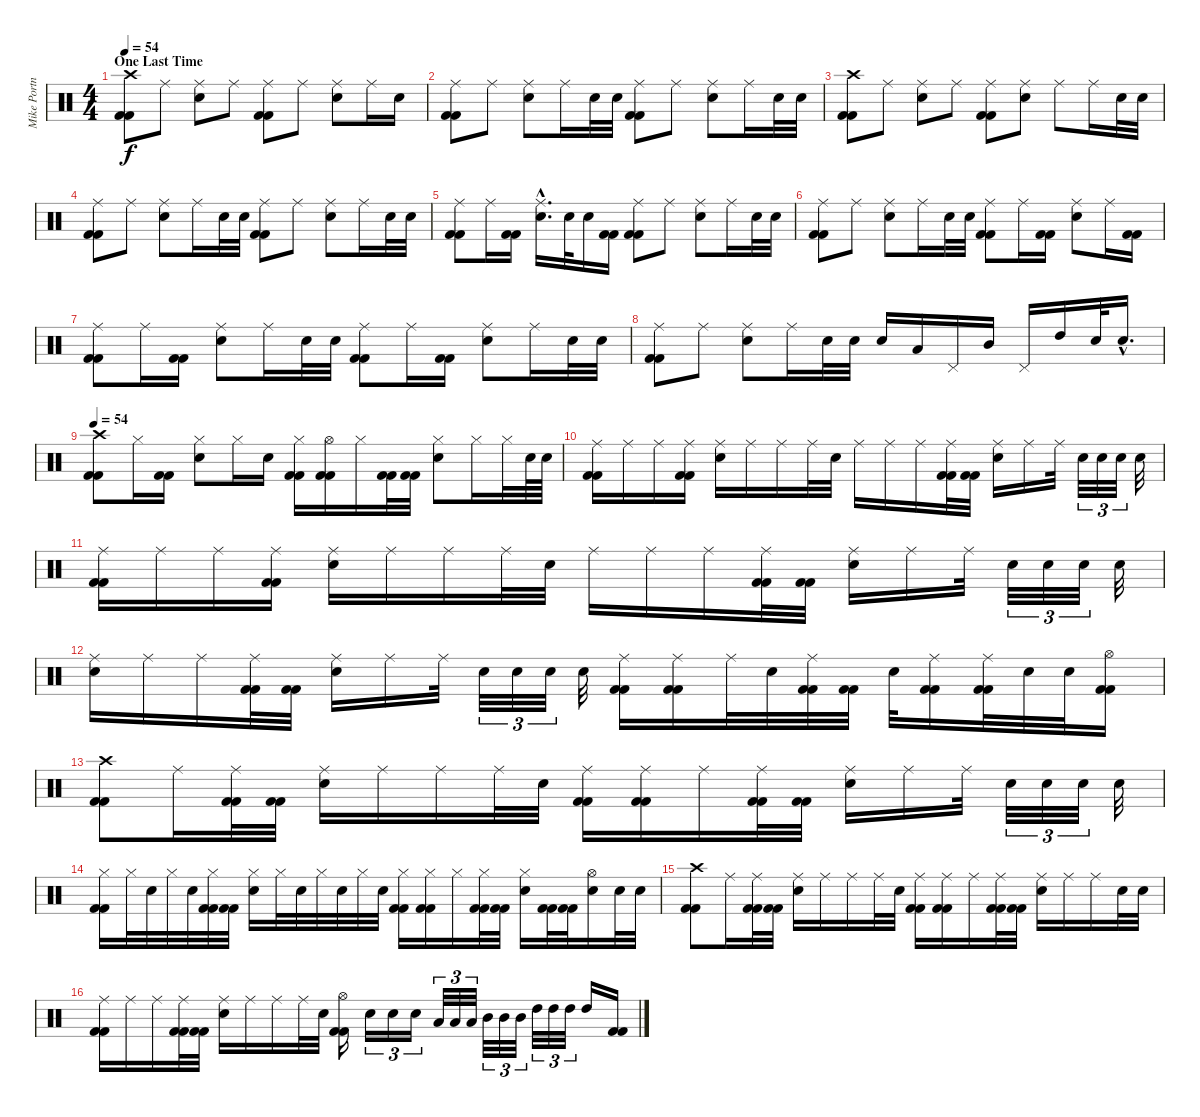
\track ("Mike Portnoy - Drum" "Mike Portn") {instrument percussion}
\staff {score}
\articulation defaults
\ts (4 4)
\section ("" "One Last Time")
\tempo 54
\clef neutral
\ks c
("Crash high (hit)" "Kick (hit) 2" "Kick (hit) 2").8{dy f} "Ride (middle)".8 ("Ride (middle)" "Snare (hit) 2").8 "Ride (middle)".8 ("Ride (middle)" "Kick (hit) 2" "Kick (hit) 2").8 "Ride (middle)".8 ("Ride (middle)" "Snare (hit) 2").8 "Ride (middle)".16 "Snare (hit) 2".16 |
("Ride (middle)" "Kick (hit) 2" "Kick (hit) 2").8 "Ride (middle)".8 ("Ride (middle)" "Snare (hit) 2").8 "Ride (middle)".16 "Snare (hit) 2".32 "Snare (hit) 2".32 ("Ride (middle)" "Kick (hit) 2" "Kick (hit) 2").8 "Ride (middle)".8 ("Ride (middle)" "Snare (hit) 2").8 "Ride (middle)".16 "Snare (hit) 2".32 "Snare (hit) 2".32 |
("Crash high (hit)" "Kick (hit) 2" "Kick (hit) 2").8 "Ride (middle)".8 ("Ride (middle)" "Snare (hit) 2").8 "Ride (middle)".8 ("Ride (middle)" "Kick (hit) 2" "Kick (hit) 2").8 ("Ride (middle)" "Snare (hit) 2").8 "Ride (middle)".8 "Ride (middle)".16 "Snare (hit) 2".32 "Snare (hit) 2".32 |
("Ride (middle)" "Kick (hit) 2" "Kick (hit) 2").8 "Ride (middle)".8 ("Ride (middle)" "Snare (hit) 2").8 "Ride (middle)".16 "Snare (hit) 2".32 "Snare (hit) 2".32 ("Ride (middle)" "Kick (hit) 2" "Kick (hit) 2").8 "Ride (middle)".8 ("Ride (middle)" "Snare (hit) 2").8 "Ride (middle)".16 "Snare (hit) 2".32 "Snare (hit) 2".32 |
("Ride (middle)" "Kick (hit) 2" "Kick (hit) 2").8 "Ride (middle)".16 ("Kick (hit) 2" "Kick (hit) 2").16 ("Ride (middle)"{hac} "Snare (hit) 2"{hac}).16{d} "Snare (hit) 2".32 "Snare (hit) 2".16 ("Kick (hit) 2" "Kick (hit) 2").16 ("Ride (middle)" "Kick (hit) 2" "Kick (hit) 2").8 "Ride (middle)".8 ("Ride (middle)" "Snare (hit) 2").8 "Ride (middle)".16 "Snare (hit) 2".32 "Snare (hit) 2".32 |
("Ride (middle)" "Kick (hit) 2" "Kick (hit) 2").8 "Ride (middle)".8 ("Ride (middle)" "Snare (hit) 2").8 "Ride (middle)".16 "Snare (hit) 2".32 "Snare (hit) 2".32 ("Ride (middle)" "Kick (hit) 2" "Kick (hit) 2").8 "Ride (middle)".16 ("Kick (hit) 2" "Kick (hit) 2").16 ("Ride (middle)" "Snare (hit) 2").8 "Ride (middle)".16 ("Kick (hit) 2" "Kick (hit) 2").16 |
("Ride (middle)" "Kick (hit) 2" "Kick (hit) 2").8 "Ride (middle)".16 ("Kick (hit) 2" "Kick (hit) 2").16 ("Ride (middle)" "Snare (hit) 2").8 "Ride (middle)".16 "Snare (hit) 2".32 "Snare (hit) 2".32 ("Ride (middle)" "Kick (hit) 2" "Kick (hit) 2").8 "Ride (middle)".16 ("Kick (hit) 2" "Kick (hit) 2").16 ("Ride (middle)" "Snare (hit) 2").8 "Ride (middle)".16 "Snare (hit) 2".32 "Snare (hit) 2".32 |
("Ride (middle)" "Kick (hit) 2" "Kick (hit) 2").8 "Ride (middle)".8 ("Ride (middle)" "Snare (hit) 2").8 "Ride (middle)".16 "Snare (hit) 2".32 "Snare (hit) 2".32 "Snare (hit) 2".16 "Low Tom (hit)".16 "Pedal Hi-Hat (hit)".16 "Mid Tom (hit)".16 "Pedal Hi-Hat (hit)".16 "High Tom (hit)".16 "Snare (hit) 2".32 "Snare (hit) 2"{hac}.16{d} |
\tempo 54
("Crash high (hit)" "Kick (hit) 2" "Kick (hit) 2").8 "Hi-Hat (closed)".16 ("Kick (hit) 2" "Kick (hit) 2").16 ("Hi-Hat (closed)" "Snare (hit) 2").8 "Hi-Hat (closed)".16 "Snare (hit) 2".16 ("Hi-Hat (closed)" "Kick (hit) 2" "Kick (hit) 2").16 ("Hi-Hat (open)" "Kick (hit) 2" "Kick (hit) 2").16 "Hi-Hat (closed)".16 ("Kick (hit) 2" "Kick (hit) 2").32 ("Kick (hit) 2" "Kick (hit) 2").32 ("Hi-Hat (closed)" "Snare (hit) 2").8 "Hi-Hat (closed)".16 "Hi-Hat (closed)".32 "Snare (hit) 2".64 "Snare (hit) 2".64 |
("Ride (middle)" "Kick (hit) 2" "Kick (hit) 2").16 "Ride (middle)".16 "Ride (middle)".16 ("Ride (middle)" "Kick (hit) 2" "Kick (hit) 2").16 ("Ride (middle)" "Snare (hit) 2").16 "Ride (middle)".16 "Ride (middle)".16 "Ride (middle)".32 "Snare (hit) 2".32 "Ride (middle)".16 "Ride (middle)".16 "Ride (middle)".16 ("Ride (middle)" "Kick (hit) 2" "Kick (hit) 2").32 ("Kick (hit) 2" "Kick (hit) 2").32 ("Ride (middle)" "Snare (hit) 2").16 "Ride (middle)".16 "Ride (middle)".32 "Snare (hit) 2".32{tu (3 2)} "Snare (hit) 2".32{tu (3 2)} "Snare (hit) 2".32{tu (3 2)} "Snare (hit) 2".32 |
("Ride (middle)" "Kick (hit) 2" "Kick (hit) 2").16 "Ride (middle)".16 "Ride (middle)".16 ("Ride (middle)" "Kick (hit) 2" "Kick (hit) 2").16 ("Ride (middle)" "Snare (hit) 2").16 "Ride (middle)".16 "Ride (middle)".16 "Ride (middle)".32 "Snare (hit) 2".32 "Ride (middle)".16 "Ride (middle)".16 "Ride (middle)".16 ("Ride (middle)" "Kick (hit) 2" "Kick (hit) 2").32 ("Kick (hit) 2" "Kick (hit) 2").32 ("Ride (middle)" "Snare (hit) 2").16 "Ride (middle)".16 "Ride (middle)".32 "Snare (hit) 2".32{tu (3 2)} "Snare (hit) 2".32{tu (3 2)} "Snare (hit) 2".32{tu (3 2)} "Snare (hit) 2".32 |
("Ride (middle)" "Snare (hit) 2").16 "Ride (middle)".16 "Ride (middle)".16 ("Ride (middle)" "Kick (hit) 2" "Kick (hit) 2").32 ("Kick (hit) 2" "Kick (hit) 2").32 ("Ride (middle)" "Snare (hit) 2").16 "Ride (middle)".16 "Ride (middle)".32 "Snare (hit) 2".32{tu (3 2)} "Snare (hit) 2".32{tu (3 2)} "Snare (hit) 2".32{tu (3 2)} "Snare (hit) 2".32 ("Ride (middle)" "Kick (hit) 2" "Kick (hit) 2").16 ("Ride (middle)" "Kick (hit) 2" "Kick (hit) 2").16 "Ride (middle)".32 "Snare (hit) 2".32 ("Ride (middle)" "Kick (hit) 2" "Kick (hit) 2").32 ("Kick (hit) 2" "Kick (hit) 2").32 "Snare (hit) 2".32 ("Ride (middle)" "Kick (hit) 2" "Kick (hit) 2").16 ("Ride (middle)" "Kick (hit) 2" "Kick (hit) 2").32 "Snare (hit) 2".32 "Snare (hit) 2".32 ("Hi-Hat (open)" "Kick (hit) 2" "Kick (hit) 2").16 |
("Crash high (hit)" "Kick (hit) 2" "Kick (hit) 2").8 "Ride (middle)".16 ("Ride (middle)" "Kick (hit) 2" "Kick (hit) 2").32 ("Kick (hit) 2" "Kick (hit) 2").32 ("Ride (middle)" "Snare (hit) 2").16 "Ride (middle)".16 "Ride (middle)".16 "Ride (middle)".32 "Snare (hit) 2".32 ("Ride (middle)" "Kick (hit) 2" "Kick (hit) 2").16 ("Ride (middle)" "Kick (hit) 2" "Kick (hit) 2").16 "Ride (middle)".16 ("Ride (middle)" "Kick (hit) 2" "Kick (hit) 2").32 ("Kick (hit) 2" "Kick (hit) 2").32 ("Ride (middle)" "Snare (hit) 2").16 "Ride (middle)".16 "Ride (middle)".32 "Snare (hit) 2".32{tu (3 2)} "Snare (hit) 2".32{tu (3 2)} "Snare (hit) 2".32{tu (3 2)} "Snare (hit) 2".32 |
("Hi-Hat (closed)" "Kick (hit) 2" "Kick (hit) 2").16 "Hi-Hat (closed)".32 "Snare (hit) 2".32 "Hi-Hat (closed)".32 "Snare (hit) 2".32 ("Hi-Hat (closed)" "Kick (hit) 2" "Kick (hit) 2").32 ("Kick (hit) 2" "Kick (hit) 2").32 ("Hi-Hat (closed)" "Snare (hit) 2").16 "Hi-Hat (closed)".32 "Snare (hit) 2".32 "Hi-Hat (closed)".32 "Snare (hit) 2".32 "Hi-Hat (closed)".32 "Snare (hit) 2".32 ("Hi-Hat (closed)" "Kick (hit) 2" "Kick (hit) 2").16 ("Hi-Hat (closed)" "Kick (hit) 2" "Kick (hit) 2").16 "Hi-Hat (closed)".16 ("Hi-Hat (closed)" "Kick (hit) 2" "Kick (hit) 2").32 ("Kick (hit) 2" "Kick (hit) 2").32 ("Hi-Hat (closed)" "Snare (hit) 2").16 ("Kick (hit) 2" "Kick (hit) 2").32 ("Kick (hit) 2" "Kick (hit) 2").32 ("Hi-Hat (open)" "Snare (hit) 2").16 "Snare (hit) 2".32 "Snare (hit) 2".32 |
("Crash high (hit)" "Kick (hit) 2" "Kick (hit) 2").8 "Ride (middle)".16 ("Ride (middle)" "Kick (hit) 2" "Kick (hit) 2").32 ("Kick (hit) 2" "Kick (hit) 2").32 ("Ride (middle)" "Snare (hit) 2").16 "Ride (middle)".16 "Ride (middle)".16 "Ride (middle)".32 "Snare (hit) 2".32 ("Ride (middle)" "Kick (hit) 2" "Kick (hit) 2").16 ("Ride (middle)" "Kick (hit) 2" "Kick (hit) 2").16 "Ride (middle)".16 ("Ride (middle)" "Kick (hit) 2" "Kick (hit) 2").32 ("Kick (hit) 2" "Kick (hit) 2").32 ("Ride (middle)" "Snare (hit) 2").16 "Ride (middle)".16 "Ride (middle)".16 "Snare (hit) 2".32 "Snare (hit) 2".32 |
("Ride (middle)" "Kick (hit) 2" "Kick (hit) 2").16 "Ride (middle)".16 "Ride (middle)".16 ("Ride (middle)" "Kick (hit) 2" "Kick (hit) 2").32 ("Kick (hit) 2" "Kick (hit) 2").32 ("Ride (middle)" "Snare (hit) 2").16 "Ride (middle)".16 "Ride (middle)".16 "Ride (middle)".32 "Snare (hit) 2".32 ("Hi-Hat (open)" "Kick (hit) 2" "Kick (hit) 2").16 "Snare (hit) 2".16{tu (3 2)} "Snare (hit) 2".16{tu (3 2)} "Snare (hit) 2".16{tu (3 2)} "Low Tom (hit)".32{tu (3 2)} "Low Tom (hit)".32{tu (3 2)} "Low Tom (hit)".32{tu (3 2)} "Mid Tom (hit)".32{tu (3 2)} "Mid Tom (hit)".32{tu (3 2)} "Mid Tom (hit)".32{tu (3 2)} "High Tom (hit)".32{tu (3 2)} "High Tom (hit)".32{tu (3 2)} "High Tom (hit)".32{tu (3 2)} "High Tom (hit)".16 ("Kick (hit) 2" "Kick (hit) 2").16
